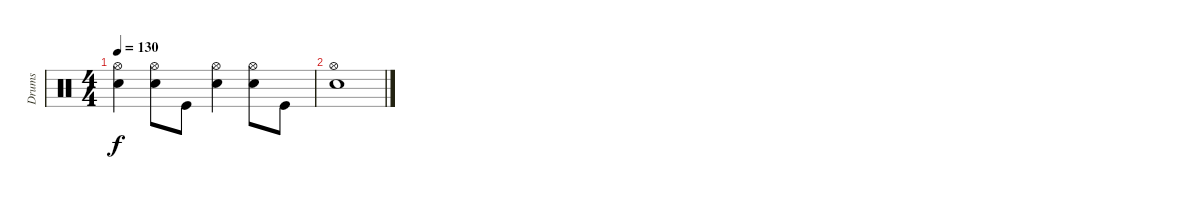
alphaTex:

\track ("Drums" "Drums") {instrument percussion}
\staff {score}
\articulation defaults
\ts (4 4)
\tempo 130
\clef neutral
\ks c
("Electric Snare (hit)" "Hi-Hat (open)").4{dy f} ("Electric Snare (hit)" "Hi-Hat (open)").8 "Kick (hit)".8 ("Electric Snare (hit)" "Hi-Hat (open)").4 ("Electric Snare (hit)" "Hi-Hat (open)").8 "Kick (hit)".8 |
("Electric Snare (hit)" "Hi-Hat (open)").1
